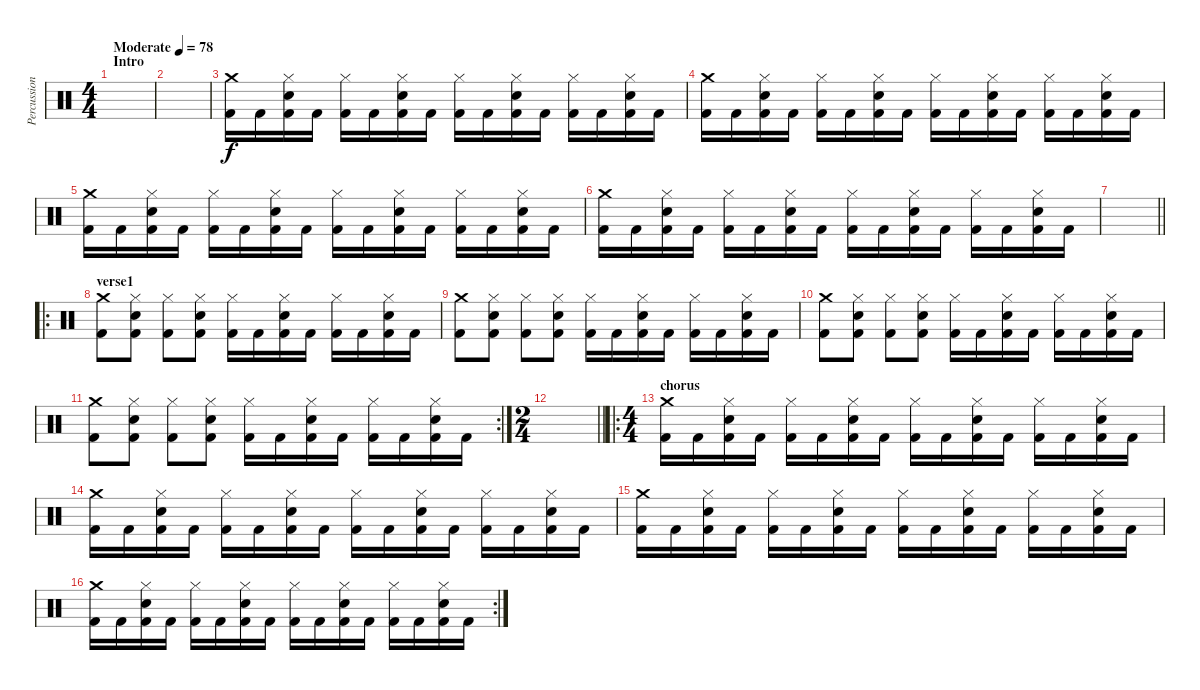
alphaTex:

\track ("Percussions" "Percussion") {instrument percussion}
\staff {score}
\articulation defaults
\ts (4 4)
\section ("" "Intro")
\tempo (78 "Moderate")
\clef neutral
\ks c
|
|
("Crash medium (hit)" "Kick (hit) 2").16 "Kick (hit) 2".16 ("Hi-Hat (closed)" "Electric Snare (hit)" "Kick (hit) 2").16 "Kick (hit) 2".16 ("Hi-Hat (closed)" "Kick (hit) 2").16 "Kick (hit) 2".16 ("Hi-Hat (closed)" "Electric Snare (hit)" "Kick (hit) 2").16 "Kick (hit) 2".16 ("Hi-Hat (closed)" "Kick (hit) 2").16 "Kick (hit) 2".16 ("Hi-Hat (closed)" "Electric Snare (hit)" "Kick (hit) 2").16 "Kick (hit) 2".16 ("Hi-Hat (closed)" "Kick (hit) 2").16 "Kick (hit) 2".16 ("Hi-Hat (closed)" "Electric Snare (hit)" "Kick (hit) 2").16 "Kick (hit) 2".16 |
("Crash medium (hit)" "Kick (hit) 2").16 "Kick (hit) 2".16 ("Hi-Hat (closed)" "Electric Snare (hit)" "Kick (hit) 2").16 "Kick (hit) 2".16 ("Hi-Hat (closed)" "Kick (hit) 2").16 "Kick (hit) 2".16 ("Hi-Hat (closed)" "Electric Snare (hit)" "Kick (hit) 2").16 "Kick (hit) 2".16 ("Hi-Hat (closed)" "Kick (hit) 2").16 "Kick (hit) 2".16 ("Hi-Hat (closed)" "Electric Snare (hit)" "Kick (hit) 2").16 "Kick (hit) 2".16 ("Hi-Hat (closed)" "Kick (hit) 2").16 "Kick (hit) 2".16 ("Hi-Hat (closed)" "Electric Snare (hit)" "Kick (hit) 2").16 "Kick (hit) 2".16 |
("Crash medium (hit)" "Kick (hit) 2").16 "Kick (hit) 2".16 ("Hi-Hat (closed)" "Electric Snare (hit)" "Kick (hit) 2").16 "Kick (hit) 2".16 ("Hi-Hat (closed)" "Kick (hit) 2").16 "Kick (hit) 2".16 ("Hi-Hat (closed)" "Electric Snare (hit)" "Kick (hit) 2").16 "Kick (hit) 2".16 ("Hi-Hat (closed)" "Kick (hit) 2").16 "Kick (hit) 2".16 ("Hi-Hat (closed)" "Electric Snare (hit)" "Kick (hit) 2").16 "Kick (hit) 2".16 ("Hi-Hat (closed)" "Kick (hit) 2").16 "Kick (hit) 2".16 ("Hi-Hat (closed)" "Electric Snare (hit)" "Kick (hit) 2").16 "Kick (hit) 2".16 |
("Crash medium (hit)" "Kick (hit) 2").16 "Kick (hit) 2".16 ("Hi-Hat (closed)" "Electric Snare (hit)" "Kick (hit) 2").16 "Kick (hit) 2".16 ("Hi-Hat (closed)" "Kick (hit) 2").16 "Kick (hit) 2".16 ("Hi-Hat (closed)" "Electric Snare (hit)" "Kick (hit) 2").16 "Kick (hit) 2".16 ("Hi-Hat (closed)" "Kick (hit) 2").16 "Kick (hit) 2".16 ("Hi-Hat (closed)" "Electric Snare (hit)" "Kick (hit) 2").16 "Kick (hit) 2".16 ("Hi-Hat (closed)" "Kick (hit) 2").16 "Kick (hit) 2".16 ("Hi-Hat (closed)" "Electric Snare (hit)" "Kick (hit) 2").16 "Kick (hit) 2".16 |
\barLineRight lightlight
|
\ro
\section ("" "verse1")
("Crash medium (hit)" "Kick (hit) 2").8 ("Hi-Hat (closed)" "Electric Snare (hit)" "Kick (hit) 2").8 ("Hi-Hat (closed)" "Kick (hit) 2").8 ("Hi-Hat (closed)" "Electric Snare (hit)" "Kick (hit) 2").8 ("Hi-Hat (closed)" "Kick (hit) 2").16 "Kick (hit) 2".16 ("Hi-Hat (closed)" "Electric Snare (hit)" "Kick (hit) 2").16 "Kick (hit) 2".16 ("Hi-Hat (closed)" "Kick (hit) 2").16 "Kick (hit) 2".16 ("Hi-Hat (closed)" "Electric Snare (hit)" "Kick (hit) 2").16 "Kick (hit) 2".16 |
("Crash medium (hit)" "Kick (hit) 2").8 ("Hi-Hat (closed)" "Electric Snare (hit)" "Kick (hit) 2").8 ("Hi-Hat (closed)" "Kick (hit) 2").8 ("Hi-Hat (closed)" "Electric Snare (hit)" "Kick (hit) 2").8 ("Hi-Hat (closed)" "Kick (hit) 2").16 "Kick (hit) 2".16 ("Hi-Hat (closed)" "Electric Snare (hit)" "Kick (hit) 2").16 "Kick (hit) 2".16 ("Hi-Hat (closed)" "Kick (hit) 2").16 "Kick (hit) 2".16 ("Hi-Hat (closed)" "Electric Snare (hit)" "Kick (hit) 2").16 "Kick (hit) 2".16 |
("Crash medium (hit)" "Kick (hit) 2").8 ("Hi-Hat (closed)" "Electric Snare (hit)" "Kick (hit) 2").8 ("Hi-Hat (closed)" "Kick (hit) 2").8 ("Hi-Hat (closed)" "Electric Snare (hit)" "Kick (hit) 2").8 ("Hi-Hat (closed)" "Kick (hit) 2").16 "Kick (hit) 2".16 ("Hi-Hat (closed)" "Electric Snare (hit)" "Kick (hit) 2").16 "Kick (hit) 2".16 ("Hi-Hat (closed)" "Kick (hit) 2").16 "Kick (hit) 2".16 ("Hi-Hat (closed)" "Electric Snare (hit)" "Kick (hit) 2").16 "Kick (hit) 2".16 |
\rc 2
("Crash medium (hit)" "Kick (hit) 2").8 ("Hi-Hat (closed)" "Electric Snare (hit)" "Kick (hit) 2").8 ("Hi-Hat (closed)" "Kick (hit) 2").8 ("Hi-Hat (closed)" "Electric Snare (hit)" "Kick (hit) 2").8 ("Hi-Hat (closed)" "Kick (hit) 2").16 "Kick (hit) 2".16 ("Hi-Hat (closed)" "Electric Snare (hit)" "Kick (hit) 2").16 "Kick (hit) 2".16 ("Hi-Hat (closed)" "Kick (hit) 2").16 "Kick (hit) 2".16 ("Hi-Hat (closed)" "Electric Snare (hit)" "Kick (hit) 2").16 "Kick (hit) 2".16 |
\ts (2 4)
\barLineRight lightlight
|
\ro
\ts (4 4)
\section ("" "chorus")
("Crash medium (hit)" "Kick (hit) 2").16 "Kick (hit) 2".16 ("Hi-Hat (closed)" "Electric Snare (hit)" "Kick (hit) 2").16 "Kick (hit) 2".16 ("Hi-Hat (closed)" "Kick (hit) 2").16 "Kick (hit) 2".16 ("Hi-Hat (closed)" "Electric Snare (hit)" "Kick (hit) 2").16 "Kick (hit) 2".16 ("Hi-Hat (closed)" "Kick (hit) 2").16 "Kick (hit) 2".16 ("Hi-Hat (closed)" "Electric Snare (hit)" "Kick (hit) 2").16 "Kick (hit) 2".16 ("Hi-Hat (closed)" "Kick (hit) 2").16 "Kick (hit) 2".16 ("Hi-Hat (closed)" "Electric Snare (hit)" "Kick (hit) 2").16 "Kick (hit) 2".16 |
("Crash medium (hit)" "Kick (hit) 2").16 "Kick (hit) 2".16 ("Hi-Hat (closed)" "Electric Snare (hit)" "Kick (hit) 2").16 "Kick (hit) 2".16 ("Hi-Hat (closed)" "Kick (hit) 2").16 "Kick (hit) 2".16 ("Hi-Hat (closed)" "Electric Snare (hit)" "Kick (hit) 2").16 "Kick (hit) 2".16 ("Hi-Hat (closed)" "Kick (hit) 2").16 "Kick (hit) 2".16 ("Hi-Hat (closed)" "Electric Snare (hit)" "Kick (hit) 2").16 "Kick (hit) 2".16 ("Hi-Hat (closed)" "Kick (hit) 2").16 "Kick (hit) 2".16 ("Hi-Hat (closed)" "Electric Snare (hit)" "Kick (hit) 2").16 "Kick (hit) 2".16 |
("Crash medium (hit)" "Kick (hit) 2").16 "Kick (hit) 2".16 ("Hi-Hat (closed)" "Electric Snare (hit)" "Kick (hit) 2").16 "Kick (hit) 2".16 ("Hi-Hat (closed)" "Kick (hit) 2").16 "Kick (hit) 2".16 ("Hi-Hat (closed)" "Electric Snare (hit)" "Kick (hit) 2").16 "Kick (hit) 2".16 ("Hi-Hat (closed)" "Kick (hit) 2").16 "Kick (hit) 2".16 ("Hi-Hat (closed)" "Electric Snare (hit)" "Kick (hit) 2").16 "Kick (hit) 2".16 ("Hi-Hat (closed)" "Kick (hit) 2").16 "Kick (hit) 2".16 ("Hi-Hat (closed)" "Electric Snare (hit)" "Kick (hit) 2").16 "Kick (hit) 2".16 |
\rc 2
("Crash medium (hit)" "Kick (hit) 2").16 "Kick (hit) 2".16 ("Hi-Hat (closed)" "Electric Snare (hit)" "Kick (hit) 2").16 "Kick (hit) 2".16 ("Hi-Hat (closed)" "Kick (hit) 2").16 "Kick (hit) 2".16 ("Hi-Hat (closed)" "Electric Snare (hit)" "Kick (hit) 2").16 "Kick (hit) 2".16 ("Hi-Hat (closed)" "Kick (hit) 2").16 "Kick (hit) 2".16 ("Hi-Hat (closed)" "Electric Snare (hit)" "Kick (hit) 2").16 "Kick (hit) 2".16 ("Hi-Hat (closed)" "Kick (hit) 2").16 "Kick (hit) 2".16 ("Hi-Hat (closed)" "Electric Snare (hit)" "Kick (hit) 2").16 "Kick (hit) 2".16
